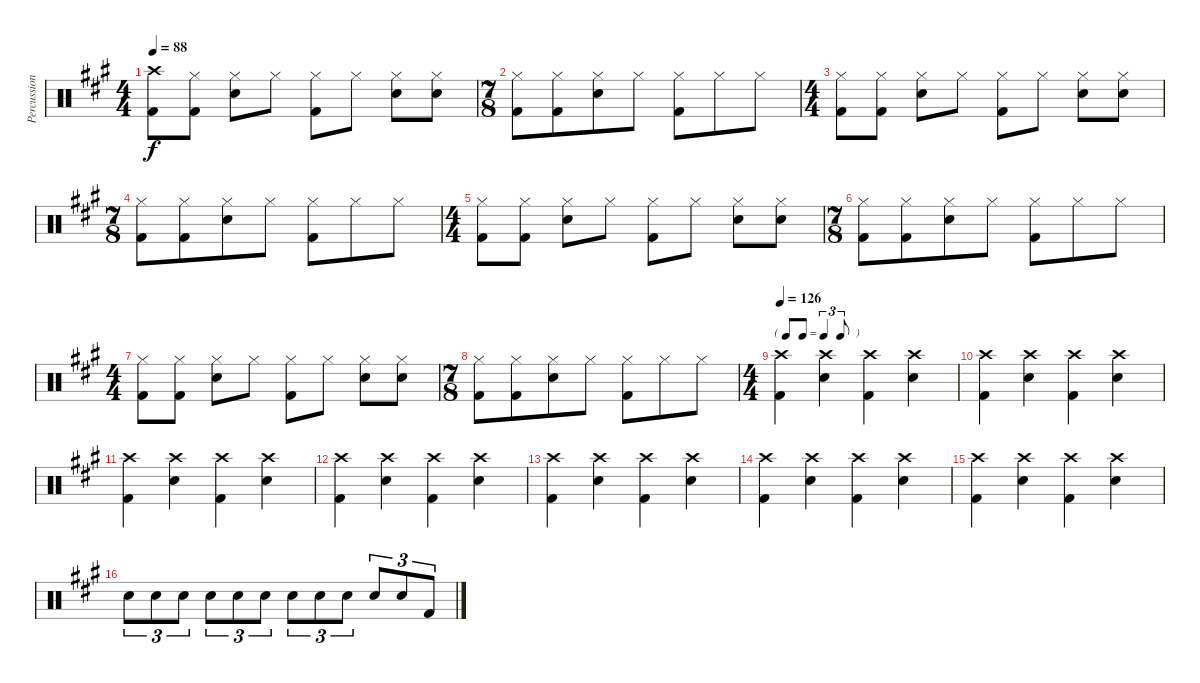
\track ("Percussion" "Percussion") {instrument percussion}
\staff {score}
\articulation defaults
\ts (4 4)
\tempo 88
\clef neutral
\ks a
("Crash high (hit)" "Kick (hit) 2").8{dy f} ("Hi-Hat (closed)" "Kick (hit) 2").8 ("Hi-Hat (closed)" "Snare (hit) 2").8 "Hi-Hat (closed)".8 ("Hi-Hat (closed)" "Kick (hit) 2").8 "Hi-Hat (closed)".8 ("Hi-Hat (closed)" "Snare (hit) 2").8 ("Hi-Hat (closed)" "Snare (hit) 2").8 |
\ts (7 8)
("Hi-Hat (closed)" "Kick (hit) 2").8 ("Hi-Hat (closed)" "Kick (hit) 2").8 ("Hi-Hat (closed)" "Snare (hit) 2").8 "Hi-Hat (closed)".8 ("Hi-Hat (closed)" "Kick (hit) 2").8 "Hi-Hat (closed)".8 "Hi-Hat (closed)".8 |
\ts (4 4)
("Hi-Hat (closed)" "Kick (hit) 2").8 ("Hi-Hat (closed)" "Kick (hit) 2").8 ("Hi-Hat (closed)" "Snare (hit) 2").8 "Hi-Hat (closed)".8 ("Hi-Hat (closed)" "Kick (hit) 2").8 "Hi-Hat (closed)".8 ("Hi-Hat (closed)" "Snare (hit) 2").8 ("Hi-Hat (closed)" "Snare (hit) 2").8 |
\ts (7 8)
("Hi-Hat (closed)" "Kick (hit) 2").8 ("Hi-Hat (closed)" "Kick (hit) 2").8 ("Hi-Hat (closed)" "Snare (hit) 2").8 "Hi-Hat (closed)".8 ("Hi-Hat (closed)" "Kick (hit) 2").8 "Hi-Hat (closed)".8 "Hi-Hat (closed)".8 |
\ts (4 4)
("Hi-Hat (closed)" "Kick (hit) 2").8 ("Hi-Hat (closed)" "Kick (hit) 2").8 ("Hi-Hat (closed)" "Snare (hit) 2").8 "Hi-Hat (closed)".8 ("Hi-Hat (closed)" "Kick (hit) 2").8 "Hi-Hat (closed)".8 ("Hi-Hat (closed)" "Snare (hit) 2").8 ("Hi-Hat (closed)" "Snare (hit) 2").8 |
\ts (7 8)
("Hi-Hat (closed)" "Kick (hit) 2").8 ("Hi-Hat (closed)" "Kick (hit) 2").8 ("Hi-Hat (closed)" "Snare (hit) 2").8 "Hi-Hat (closed)".8 ("Hi-Hat (closed)" "Kick (hit) 2").8 "Hi-Hat (closed)".8 "Hi-Hat (closed)".8 |
\ts (4 4)
("Hi-Hat (closed)" "Kick (hit) 2").8 ("Hi-Hat (closed)" "Kick (hit) 2").8 ("Hi-Hat (closed)" "Snare (hit) 2").8 "Hi-Hat (closed)".8 ("Hi-Hat (closed)" "Kick (hit) 2").8 "Hi-Hat (closed)".8 ("Hi-Hat (closed)" "Snare (hit) 2").8 ("Hi-Hat (closed)" "Snare (hit) 2").8 |
\ts (7 8)
("Hi-Hat (closed)" "Kick (hit) 2").8 ("Hi-Hat (closed)" "Kick (hit) 2").8 ("Hi-Hat (closed)" "Snare (hit) 2").8 "Hi-Hat (closed)".8 ("Hi-Hat (closed)" "Kick (hit) 2").8 "Hi-Hat (closed)".8 "Hi-Hat (closed)".8 |
\ts (4 4)
\tf triplet8th
\tempo 126
("Crash high (hit)" "Kick (hit) 2").4 ("Crash high (hit)" "Snare (hit) 2").4 ("Crash high (hit)" "Kick (hit) 2").4 ("Crash high (hit)" "Snare (hit) 2").4 |
("Crash high (hit)" "Kick (hit) 2").4 ("Crash high (hit)" "Snare (hit) 2").4 ("Crash high (hit)" "Kick (hit) 2").4 ("Crash high (hit)" "Snare (hit) 2").4 |
("Crash high (hit)" "Kick (hit) 2").4 ("Crash high (hit)" "Snare (hit) 2").4 ("Crash high (hit)" "Kick (hit) 2").4 ("Crash high (hit)" "Snare (hit) 2").4 |
("Crash high (hit)" "Kick (hit) 2").4 ("Crash high (hit)" "Snare (hit) 2").4 ("Crash high (hit)" "Kick (hit) 2").4 ("Crash high (hit)" "Snare (hit) 2").4 |
("Crash high (hit)" "Kick (hit) 2").4 ("Crash high (hit)" "Snare (hit) 2").4 ("Crash high (hit)" "Kick (hit) 2").4 ("Crash high (hit)" "Snare (hit) 2").4 |
("Crash high (hit)" "Kick (hit) 2").4 ("Crash high (hit)" "Snare (hit) 2").4 ("Crash high (hit)" "Kick (hit) 2").4 ("Crash high (hit)" "Snare (hit) 2").4 |
("Crash high (hit)" "Kick (hit) 2").4 ("Crash high (hit)" "Snare (hit) 2").4 ("Crash high (hit)" "Kick (hit) 2").4 ("Crash high (hit)" "Snare (hit) 2").4 |
"Snare (hit) 2".8{tu (3 2)} "Snare (hit) 2".8{tu (3 2)} "Snare (hit) 2".8{tu (3 2)} "Snare (hit) 2".8{tu (3 2)} "Snare (hit) 2".8{tu (3 2)} "Snare (hit) 2".8{tu (3 2)} "Snare (hit) 2".8{tu (3 2)} "Snare (hit) 2".8{tu (3 2)} "Snare (hit) 2".8{tu (3 2)} "Snare (hit) 2".8{tu (3 2)} "Snare (hit) 2".8{tu (3 2)} "Kick (hit) 2".8{tu (3 2)}
